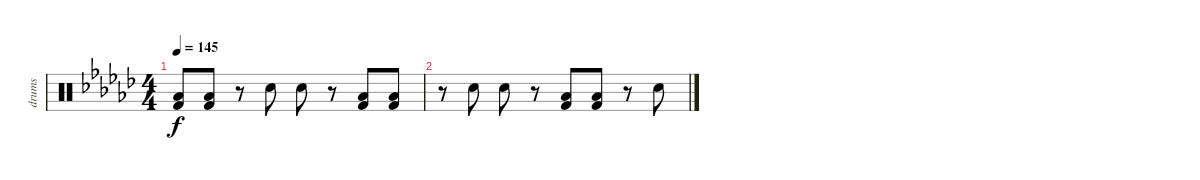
\track ("drums" "drums") {instrument percussion}
\staff {score}
\articulation defaults
\ts (4 4)
\tempo 145
\clef neutral
\ks gb
("Low Floor Tom (hit)" "Kick (hit) 2").8{dy f} ("Low Floor Tom (hit)" "Kick (hit) 2").8 r.8 "Snare (hit) 2".8 "Snare (hit) 2".8 r.8 ("Low Floor Tom (hit)" "Kick (hit) 2").8 ("Low Floor Tom (hit)" "Kick (hit) 2").8 |
r.8 "Snare (hit) 2".8 "Snare (hit) 2".8 r.8 ("Low Floor Tom (hit)" "Kick (hit) 2").8 ("Low Floor Tom (hit)" "Kick (hit) 2").8 r.8 "Snare (hit) 2".8
